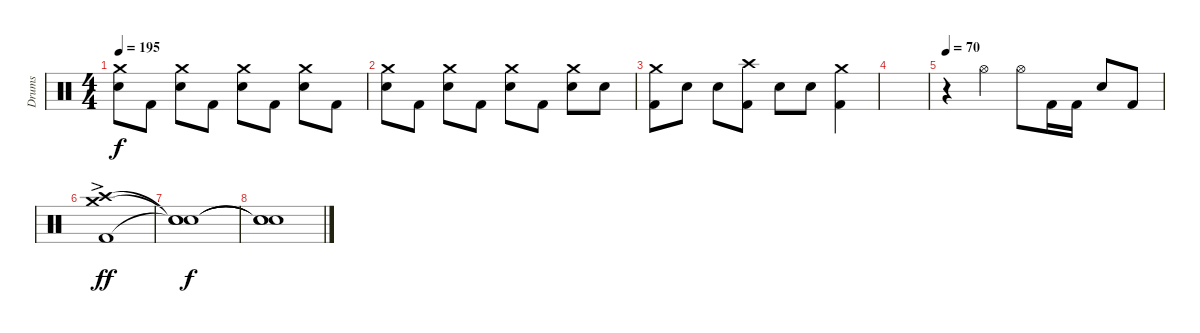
\track ("Drums" "Drums") {instrument percussion}
\staff {score}
\articulation defaults
\ts (4 4)
\tempo 195
\clef neutral
\ks c
("Crash medium (hit)" "Snare (hit) 2").8{dy f} "Kick (hit) 2".8 ("Crash medium (hit)" "Snare (hit) 2").8 "Kick (hit) 2".8 ("Crash medium (hit)" "Snare (hit) 2").8 "Kick (hit) 2".8 ("Crash medium (hit)" "Snare (hit) 2").8 "Kick (hit) 2".8 |
("Crash medium (hit)" "Snare (hit) 2").8 "Kick (hit) 2".8 ("Crash medium (hit)" "Snare (hit) 2").8 "Kick (hit) 2".8 ("Crash medium (hit)" "Snare (hit) 2").8 "Kick (hit) 2".8 ("Crash medium (hit)" "Snare (hit) 2").8 "Snare (hit) 2".8 |
("Crash medium (hit)" "Kick (hit) 2").8 "Snare (hit) 2".8 "Snare (hit) 2".8 ("Crash high (hit)" "Kick (hit) 2").8 "Snare (hit) 2".8 "Snare (hit) 2".8 ("Crash medium (hit)" "Kick (hit) 2").4 |
|
\tempo 70
r.4 "Hi-Hat (open)".4 "Hi-Hat (open)".8 "Kick (hit) 2".16 "Kick (hit) 2".16 "Snare (hit) 2".8 "Kick (hit) 2".8 |
("Crash medium (hit)" "Crash high (hit)" "Kick (hit) 2"{ac}).1{dy ff} |
("Snare (hit)"{t} "Snare (hit)"{t} "Snare (hit)"{t}).1{dy f} |
("Snare (hit)"{t} "Snare (hit)"{t} "Snare (hit)"{t}).1
